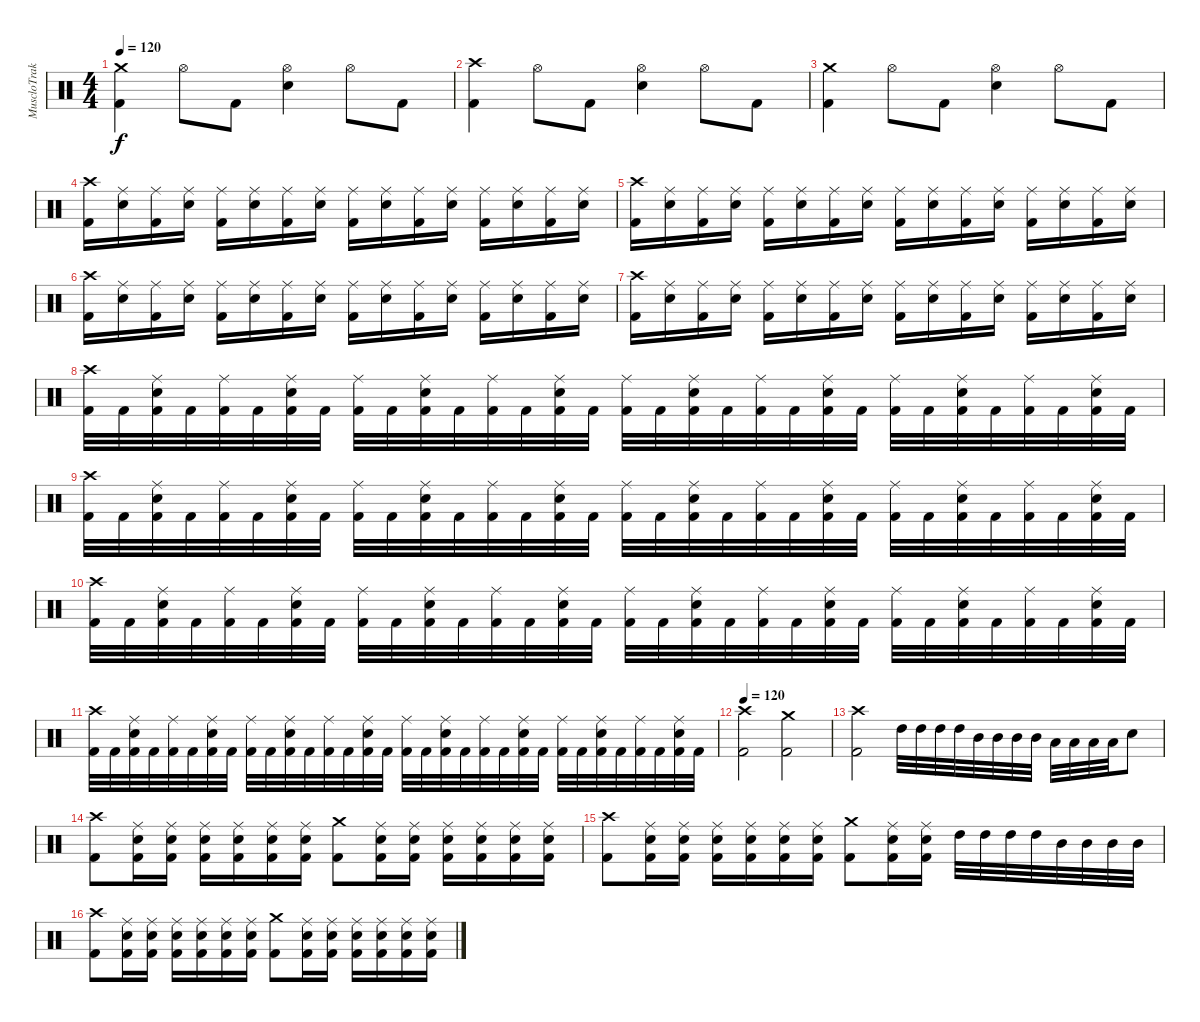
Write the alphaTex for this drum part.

\track ("MuscloTraktor" "MuscloTrak") {instrument percussion}
\staff {score}
\articulation defaults
\ts (4 4)
\tempo 120
\clef neutral
\ks c
("Kick (hit) 2" "Crash medium (hit)").4{dy f} "Hi-Hat (open)".8 "Kick (hit) 2".8 ("Electric Snare (hit)" "Hi-Hat (open)").4 "Hi-Hat (open)".8 "Kick (hit) 2".8 |
("Kick (hit) 2" "Crash high (hit)").4 "Hi-Hat (open)".8 "Kick (hit) 2".8 ("Electric Snare (hit)" "Hi-Hat (open)").4 "Hi-Hat (open)".8 "Kick (hit) 2".8 |
("Kick (hit) 2" "Crash medium (hit)").4 "Hi-Hat (open)".8 "Kick (hit) 2".8 ("Electric Snare (hit)" "Hi-Hat (open)").4 "Hi-Hat (open)".8 "Kick (hit) 2".8 |
("Kick (hit) 2" "Crash high (hit)").16 ("Electric Snare (hit)" "Ride (middle)").16 ("Kick (hit) 2" "Ride (middle)").16 ("Electric Snare (hit)" "Ride (middle)").16 ("Kick (hit) 2" "Ride (middle)").16 ("Electric Snare (hit)" "Ride (middle)").16 ("Kick (hit) 2" "Ride (middle)").16 ("Electric Snare (hit)" "Ride (middle)").16 ("Kick (hit) 2" "Ride (middle)").16 ("Electric Snare (hit)" "Ride (middle)").16 ("Kick (hit) 2" "Ride (middle)").16 ("Electric Snare (hit)" "Ride (middle)").16 ("Kick (hit) 2" "Ride (middle)").16 ("Electric Snare (hit)" "Ride (middle)").16 ("Kick (hit) 2" "Ride (middle)").16 ("Electric Snare (hit)" "Ride (middle)").16 |
("Kick (hit) 2" "Crash high (hit)").16 ("Electric Snare (hit)" "Ride (middle)").16 ("Kick (hit) 2" "Ride (middle)").16 ("Electric Snare (hit)" "Ride (middle)").16 ("Kick (hit) 2" "Ride (middle)").16 ("Electric Snare (hit)" "Ride (middle)").16 ("Kick (hit) 2" "Ride (middle)").16 ("Electric Snare (hit)" "Ride (middle)").16 ("Kick (hit) 2" "Ride (middle)").16 ("Electric Snare (hit)" "Ride (middle)").16 ("Kick (hit) 2" "Ride (middle)").16 ("Electric Snare (hit)" "Ride (middle)").16 ("Kick (hit) 2" "Ride (middle)").16 ("Electric Snare (hit)" "Ride (middle)").16 ("Kick (hit) 2" "Ride (middle)").16 ("Electric Snare (hit)" "Ride (middle)").16 |
("Kick (hit) 2" "Crash high (hit)").16 ("Electric Snare (hit)" "Ride (middle)").16 ("Kick (hit) 2" "Ride (middle)").16 ("Electric Snare (hit)" "Ride (middle)").16 ("Kick (hit) 2" "Ride (middle)").16 ("Electric Snare (hit)" "Ride (middle)").16 ("Kick (hit) 2" "Ride (middle)").16 ("Electric Snare (hit)" "Ride (middle)").16 ("Kick (hit) 2" "Ride (middle)").16 ("Electric Snare (hit)" "Ride (middle)").16 ("Kick (hit) 2" "Ride (middle)").16 ("Electric Snare (hit)" "Ride (middle)").16 ("Kick (hit) 2" "Ride (middle)").16 ("Electric Snare (hit)" "Ride (middle)").16 ("Kick (hit) 2" "Ride (middle)").16 ("Electric Snare (hit)" "Ride (middle)").16 |
("Kick (hit) 2" "Crash high (hit)").16 ("Electric Snare (hit)" "Ride (middle)").16 ("Kick (hit) 2" "Ride (middle)").16 ("Electric Snare (hit)" "Ride (middle)").16 ("Kick (hit) 2" "Ride (middle)").16 ("Electric Snare (hit)" "Ride (middle)").16 ("Kick (hit) 2" "Ride (middle)").16 ("Electric Snare (hit)" "Ride (middle)").16 ("Kick (hit) 2" "Ride (middle)").16 ("Electric Snare (hit)" "Ride (middle)").16 ("Kick (hit) 2" "Ride (middle)").16 ("Electric Snare (hit)" "Ride (middle)").16 ("Kick (hit) 2" "Ride (middle)").16 ("Electric Snare (hit)" "Ride (middle)").16 ("Kick (hit) 2" "Ride (middle)").16 ("Electric Snare (hit)" "Ride (middle)").16 |
("Kick (hit) 2" "Crash high (hit)").32 "Kick (hit) 2".32 ("Kick (hit) 2" "Electric Snare (hit)" "Ride (middle)").32 "Kick (hit) 2".32 ("Kick (hit) 2" "Ride (middle)").32 "Kick (hit) 2".32 ("Kick (hit) 2" "Electric Snare (hit)" "Ride (middle)").32 "Kick (hit) 2".32 ("Kick (hit) 2" "Ride (middle)").32 "Kick (hit) 2".32 ("Kick (hit) 2" "Electric Snare (hit)" "Ride (middle)").32 "Kick (hit) 2".32 ("Kick (hit) 2" "Ride (middle)").32 "Kick (hit) 2".32 ("Kick (hit) 2" "Electric Snare (hit)" "Ride (middle)").32 "Kick (hit) 2".32 ("Kick (hit) 2" "Ride (middle)").32 "Kick (hit) 2".32 ("Kick (hit) 2" "Electric Snare (hit)" "Ride (middle)").32 "Kick (hit) 2".32 ("Kick (hit) 2" "Ride (middle)").32 "Kick (hit) 2".32 ("Kick (hit) 2" "Electric Snare (hit)" "Ride (middle)").32 "Kick (hit) 2".32 ("Kick (hit) 2" "Ride (middle)").32 "Kick (hit) 2".32 ("Kick (hit) 2" "Electric Snare (hit)" "Ride (middle)").32 "Kick (hit) 2".32 ("Kick (hit) 2" "Ride (middle)").32 "Kick (hit) 2".32 ("Kick (hit) 2" "Electric Snare (hit)" "Ride (middle)").32 "Kick (hit) 2".32 |
("Kick (hit) 2" "Crash high (hit)").32 "Kick (hit) 2".32 ("Kick (hit) 2" "Electric Snare (hit)" "Ride (middle)").32 "Kick (hit) 2".32 ("Kick (hit) 2" "Ride (middle)").32 "Kick (hit) 2".32 ("Kick (hit) 2" "Electric Snare (hit)" "Ride (middle)").32 "Kick (hit) 2".32 ("Kick (hit) 2" "Ride (middle)").32 "Kick (hit) 2".32 ("Kick (hit) 2" "Electric Snare (hit)" "Ride (middle)").32 "Kick (hit) 2".32 ("Kick (hit) 2" "Ride (middle)").32 "Kick (hit) 2".32 ("Kick (hit) 2" "Electric Snare (hit)" "Ride (middle)").32 "Kick (hit) 2".32 ("Kick (hit) 2" "Ride (middle)").32 "Kick (hit) 2".32 ("Kick (hit) 2" "Electric Snare (hit)" "Ride (middle)").32 "Kick (hit) 2".32 ("Kick (hit) 2" "Ride (middle)").32 "Kick (hit) 2".32 ("Kick (hit) 2" "Electric Snare (hit)" "Ride (middle)").32 "Kick (hit) 2".32 ("Kick (hit) 2" "Ride (middle)").32 "Kick (hit) 2".32 ("Kick (hit) 2" "Electric Snare (hit)" "Ride (middle)").32 "Kick (hit) 2".32 ("Kick (hit) 2" "Ride (middle)").32 "Kick (hit) 2".32 ("Kick (hit) 2" "Electric Snare (hit)" "Ride (middle)").32 "Kick (hit) 2".32 |
("Kick (hit) 2" "Crash high (hit)").32 "Kick (hit) 2".32 ("Kick (hit) 2" "Electric Snare (hit)" "Ride (middle)").32 "Kick (hit) 2".32 ("Kick (hit) 2" "Ride (middle)").32 "Kick (hit) 2".32 ("Kick (hit) 2" "Electric Snare (hit)" "Ride (middle)").32 "Kick (hit) 2".32 ("Kick (hit) 2" "Ride (middle)").32 "Kick (hit) 2".32 ("Kick (hit) 2" "Electric Snare (hit)" "Ride (middle)").32 "Kick (hit) 2".32 ("Kick (hit) 2" "Ride (middle)").32 "Kick (hit) 2".32 ("Kick (hit) 2" "Electric Snare (hit)" "Ride (middle)").32 "Kick (hit) 2".32 ("Kick (hit) 2" "Ride (middle)").32 "Kick (hit) 2".32 ("Kick (hit) 2" "Electric Snare (hit)" "Ride (middle)").32 "Kick (hit) 2".32 ("Kick (hit) 2" "Ride (middle)").32 "Kick (hit) 2".32 ("Kick (hit) 2" "Electric Snare (hit)" "Ride (middle)").32 "Kick (hit) 2".32 ("Kick (hit) 2" "Ride (middle)").32 "Kick (hit) 2".32 ("Kick (hit) 2" "Electric Snare (hit)" "Ride (middle)").32 "Kick (hit) 2".32 ("Kick (hit) 2" "Ride (middle)").32 "Kick (hit) 2".32 ("Kick (hit) 2" "Electric Snare (hit)" "Ride (middle)").32 "Kick (hit) 2".32 |
("Kick (hit) 2" "Crash high (hit)").32 "Kick (hit) 2".32 ("Kick (hit) 2" "Electric Snare (hit)" "Ride (middle)").32 "Kick (hit) 2".32 ("Kick (hit) 2" "Ride (middle)").32 "Kick (hit) 2".32 ("Kick (hit) 2" "Electric Snare (hit)" "Ride (middle)").32 "Kick (hit) 2".32 ("Kick (hit) 2" "Ride (middle)").32 "Kick (hit) 2".32 ("Kick (hit) 2" "Electric Snare (hit)" "Ride (middle)").32 "Kick (hit) 2".32 ("Kick (hit) 2" "Ride (middle)").32 "Kick (hit) 2".32 ("Kick (hit) 2" "Electric Snare (hit)" "Ride (middle)").32 "Kick (hit) 2".32 ("Kick (hit) 2" "Ride (middle)").32 "Kick (hit) 2".32 ("Kick (hit) 2" "Electric Snare (hit)" "Ride (middle)").32 "Kick (hit) 2".32 ("Kick (hit) 2" "Ride (middle)").32 "Kick (hit) 2".32 ("Kick (hit) 2" "Electric Snare (hit)" "Ride (middle)").32 "Kick (hit) 2".32 ("Kick (hit) 2" "Ride (middle)").32 "Kick (hit) 2".32 ("Kick (hit) 2" "Electric Snare (hit)" "Ride (middle)").32 "Kick (hit) 2".32 ("Kick (hit) 2" "Ride (middle)").32 "Kick (hit) 2".32 ("Kick (hit) 2" "Electric Snare (hit)" "Ride (middle)").32 "Kick (hit) 2".32 |
\tempo 120
("Kick (hit) 2" "Crash high (hit)").2 ("Kick (hit) 2" "Crash medium (hit)").2 |
("Kick (hit) 2" "Crash high (hit)").2 "High Tom (hit)".32 "High Tom (hit)".32 "High Tom (hit)".32 "High Tom (hit)".32 "Mid Tom (hit)".32 "Mid Tom (hit)".32 "Mid Tom (hit)".32 "Mid Tom (hit)".32 "Low Tom (hit)".32 "Low Tom (hit)".32 "Low Tom (hit)".32 "Low Tom (hit)".32 "Electric Snare (hit)".8 |
("Kick (hit) 2" "Crash high (hit)").8 ("Kick (hit) 2" "Electric Snare (hit)" "Ride (middle)").16 ("Kick (hit) 2" "Electric Snare (hit)" "Ride (middle)").16 ("Kick (hit) 2" "Electric Snare (hit)" "Ride (middle)").16 ("Kick (hit) 2" "Electric Snare (hit)" "Ride (middle)").16 ("Kick (hit) 2" "Electric Snare (hit)" "Ride (middle)").16 ("Kick (hit) 2" "Electric Snare (hit)" "Ride (middle)").16 ("Kick (hit) 2" "Crash medium (hit)").8 ("Kick (hit) 2" "Electric Snare (hit)" "Ride (middle)").16 ("Kick (hit) 2" "Electric Snare (hit)" "Ride (middle)").16 ("Kick (hit) 2" "Electric Snare (hit)" "Ride (middle)").16 ("Kick (hit) 2" "Electric Snare (hit)" "Ride (middle)").16 ("Kick (hit) 2" "Electric Snare (hit)" "Ride (middle)").16 ("Kick (hit) 2" "Electric Snare (hit)" "Ride (middle)").16 |
("Kick (hit) 2" "Crash high (hit)").8 ("Kick (hit) 2" "Electric Snare (hit)" "Ride (middle)").16 ("Kick (hit) 2" "Electric Snare (hit)" "Ride (middle)").16 ("Kick (hit) 2" "Electric Snare (hit)" "Ride (middle)").16 ("Kick (hit) 2" "Electric Snare (hit)" "Ride (middle)").16 ("Kick (hit) 2" "Electric Snare (hit)" "Ride (middle)").16 ("Kick (hit) 2" "Electric Snare (hit)" "Ride (middle)").16 ("Kick (hit) 2" "Crash medium (hit)").8 ("Kick (hit) 2" "Electric Snare (hit)" "Ride (middle)").16 ("Kick (hit) 2" "Electric Snare (hit)" "Ride (middle)").16 "High Tom (hit)".32 "High Tom (hit)".32 "High Tom (hit)".32 "High Tom (hit)".32 "Mid Tom (hit)".32 "Mid Tom (hit)".32 "Mid Tom (hit)".32 "Mid Tom (hit)".32 |
("Kick (hit) 2" "Crash high (hit)").8 ("Kick (hit) 2" "Electric Snare (hit)" "Ride (middle)").16 ("Kick (hit) 2" "Electric Snare (hit)" "Ride (middle)").16 ("Kick (hit) 2" "Electric Snare (hit)" "Ride (middle)").16 ("Kick (hit) 2" "Electric Snare (hit)" "Ride (middle)").16 ("Kick (hit) 2" "Electric Snare (hit)" "Ride (middle)").16 ("Kick (hit) 2" "Electric Snare (hit)" "Ride (middle)").16 ("Kick (hit) 2" "Crash medium (hit)").8 ("Kick (hit) 2" "Electric Snare (hit)" "Ride (middle)").16 ("Kick (hit) 2" "Electric Snare (hit)" "Ride (middle)").16 ("Kick (hit) 2" "Electric Snare (hit)" "Ride (middle)").16 ("Kick (hit) 2" "Electric Snare (hit)" "Ride (middle)").16 ("Kick (hit) 2" "Electric Snare (hit)" "Ride (middle)").16 ("Kick (hit) 2" "Electric Snare (hit)" "Ride (middle)").16
